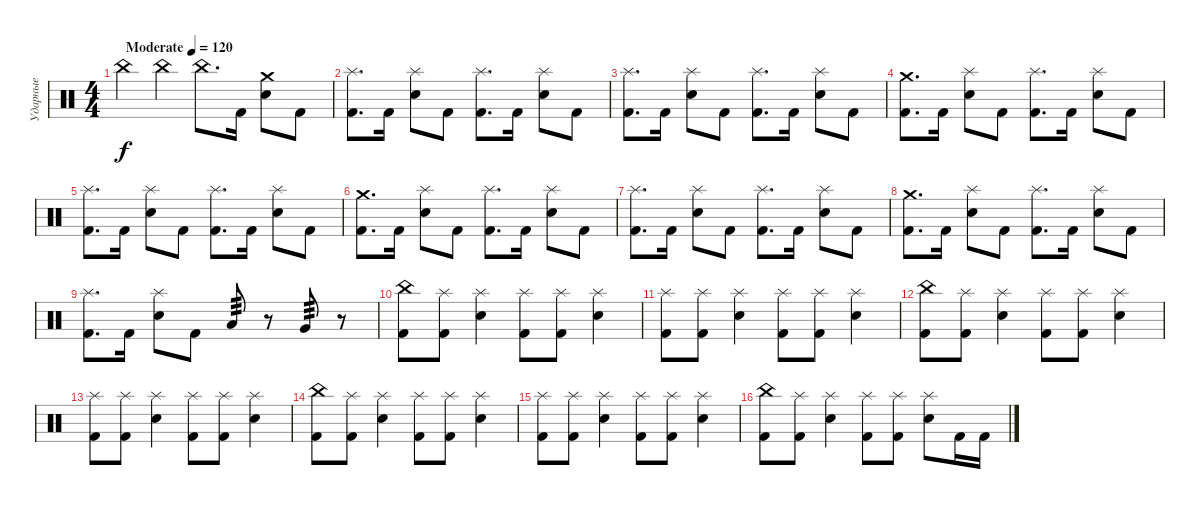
\track ("Ударные" "Ударные") {instrument percussion}
\staff {score}
\articulation defaults
\ts (4 4)
\tempo (120 "Moderate")
\clef neutral
\ks c "China (hit)".4{dy f} "China (hit)".4 "China (hit)".8{d} "Kick (hit) 2".16
("Crash medium (hit)" "Electric Snare (hit)").8 "Kick (hit) 2".8 |
("Splash (hit)" "Kick (hit) 2").8{d} "Kick (hit) 2".16 ("Splash (hit)" "Electric Snare (hit)").8 "Kick (hit) 2".8 ("Splash (hit)" "Kick (hit) 2").8{d} "Kick (hit) 2".16 ("Splash (hit)" "Electric Snare (hit)").8 "Kick (hit) 2".8 |
("Splash (hit)" "Kick (hit) 2").8{d} "Kick (hit) 2".16 ("Splash (hit)" "Electric Snare (hit)").8 "Kick (hit) 2".8 ("Splash (hit)" "Kick (hit) 2").8{d} "Kick (hit) 2".16 ("Splash (hit)" "Electric Snare (hit)").8 "Kick (hit) 2".8 |
("Crash medium (hit)" "Kick (hit) 2").8{d} "Kick (hit) 2".16 ("Splash (hit)" "Electric Snare (hit)").8 "Kick (hit) 2".8 ("Splash (hit)" "Kick (hit) 2").8{d} "Kick (hit) 2".16 ("Splash (hit)" "Electric Snare (hit)").8 "Kick (hit) 2".8 |
("Splash (hit)" "Kick (hit) 2").8{d} "Kick (hit) 2".16 ("Splash (hit)" "Electric Snare (hit)").8 "Kick (hit) 2".8 ("Splash (hit)" "Kick (hit) 2").8{d} "Kick (hit) 2".16 ("Splash (hit)" "Electric Snare (hit)").8 "Kick (hit) 2".8 |
("Crash medium (hit)" "Kick (hit) 2").8{d} "Kick (hit) 2".16 ("Splash (hit)" "Electric Snare (hit)").8 "Kick (hit) 2".8 ("Splash (hit)" "Kick (hit) 2").8{d} "Kick (hit) 2".16 ("Splash (hit)" "Electric Snare (hit)").8 "Kick (hit) 2".8 |
("Splash (hit)" "Kick (hit) 2").8{d} "Kick (hit) 2".16 ("Splash (hit)" "Electric Snare (hit)").8 "Kick (hit) 2".8 ("Splash (hit)" "Kick (hit) 2").8{d} "Kick (hit) 2".16 ("Splash (hit)" "Electric Snare (hit)").8 "Kick (hit) 2".8 |
("Crash medium (hit)" "Kick (hit) 2").8{d} "Kick (hit) 2".16 ("Splash (hit)" "Electric Snare (hit)").8 "Kick (hit) 2".8 ("Splash (hit)" "Kick (hit) 2").8{d} "Kick (hit) 2".16 ("Splash (hit)" "Electric Snare (hit)").8 "Kick (hit) 2".8 |
("Splash (hit)" "Kick (hit) 2").8{d} "Kick (hit) 2".16 ("Splash (hit)" "Electric Snare (hit)").8 "Kick (hit) 2".8 "Low Tom (hit)".8{tp 3} r.8 "Very Low Tom (hit)".8{tp 3} r.8 |
("China (hit)" "Kick (hit) 2").8 ("Splash (hit)" "Kick (hit) 2").8 ("Splash (hit)" "Electric Snare (hit)").4 ("Splash (hit)" "Kick (hit) 2").8 ("Splash (hit)" "Kick (hit) 2").8 ("Splash (hit)" "Electric Snare (hit)").4 |
("Splash (hit)" "Kick (hit) 2").8 ("Splash (hit)" "Kick (hit) 2").8 ("Splash (hit)" "Electric Snare (hit)").4 ("Splash (hit)" "Kick (hit) 2").8 ("Splash (hit)" "Kick (hit) 2").8 ("Splash (hit)" "Electric Snare (hit)").4 |
("China (hit)" "Kick (hit) 2").8 ("Splash (hit)" "Kick (hit) 2").8 ("Splash (hit)" "Electric Snare (hit)").4 ("Splash (hit)" "Kick (hit) 2").8 ("Splash (hit)" "Kick (hit) 2").8 ("Splash (hit)" "Electric Snare (hit)").4 |
("Splash (hit)" "Kick (hit) 2").8 ("Splash (hit)" "Kick (hit) 2").8 ("Splash (hit)" "Electric Snare (hit)").4 ("Splash (hit)" "Kick (hit) 2").8 ("Splash (hit)" "Kick (hit) 2").8 ("Splash (hit)" "Electric Snare (hit)").4 |
("China (hit)" "Kick (hit) 2").8 ("Splash (hit)" "Kick (hit) 2").8 ("Splash (hit)" "Electric Snare (hit)").4 ("Splash (hit)" "Kick (hit) 2").8 ("Splash (hit)" "Kick (hit) 2").8 ("Splash (hit)" "Electric Snare (hit)").4 |
("Splash (hit)" "Kick (hit) 2").8 ("Splash (hit)" "Kick (hit) 2").8 ("Splash (hit)" "Electric Snare (hit)").4 ("Splash (hit)" "Kick (hit) 2").8 ("Splash (hit)" "Kick (hit) 2").8 ("Splash (hit)" "Electric Snare (hit)").4 |
("China (hit)" "Kick (hit) 2").8 ("Splash (hit)" "Kick (hit) 2").8 ("Splash (hit)" "Electric Snare (hit)").4 ("Splash (hit)" "Kick (hit) 2").8 ("Splash (hit)" "Kick (hit) 2").8 ("Splash (hit)" "Electric Snare (hit)").8 "Kick (hit) 2".16 "Kick (hit) 2".16
